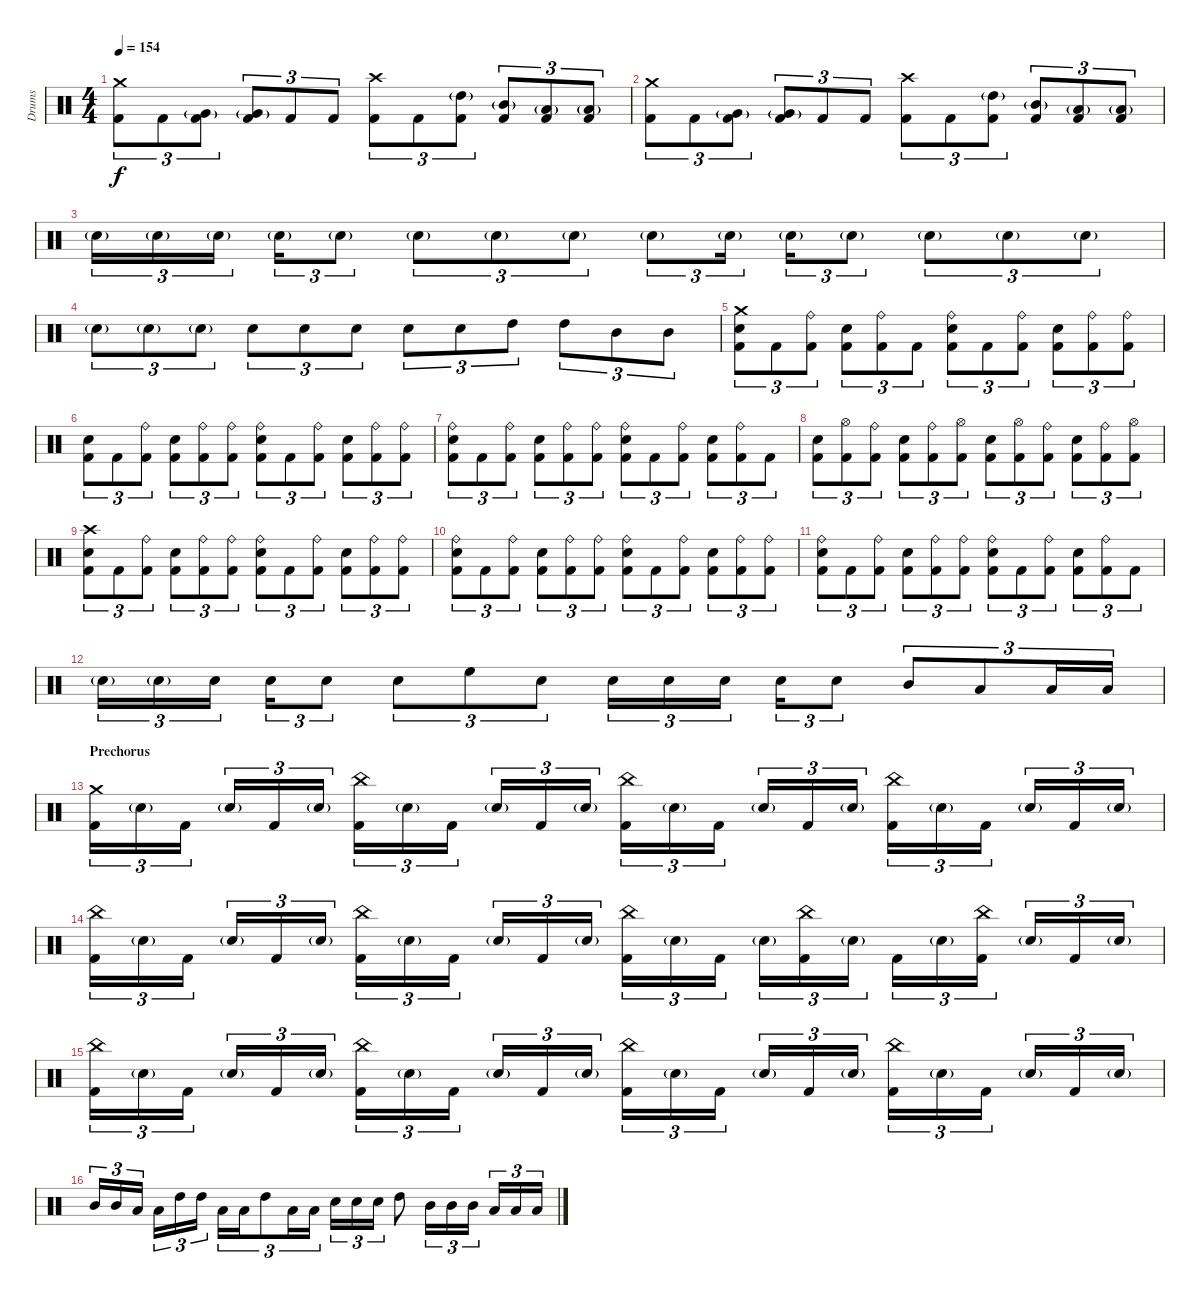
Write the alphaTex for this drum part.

\track ("Drums" "Drums") {instrument percussion}
\staff {score}
\articulation defaults
\ts (4 4)
\tempo 154
\clef neutral
\ks c
("Crash medium (hit)" "Kick (hit) 2").8{tu (3 2) dy f} "Kick (hit) 2".8{tu (3 2)} ("Very Low Tom (hit)"{g} "Kick (hit) 2").8{tu (3 2)} ("Very Low Tom (hit)"{g} "Kick (hit) 2").8{tu (3 2)} "Kick (hit) 2".8{tu (3 2)} "Kick (hit) 2".8{tu (3 2)} ("Crash high (hit)" "Kick (hit) 2").8{tu (3 2)} "Kick (hit) 2".8{tu (3 2)} ("High Tom (hit)"{g} "Kick (hit) 2").8{tu (3 2)} ("Mid Tom (hit)"{g} "Kick (hit) 2").8{tu (3 2)} ("Low Tom (hit)"{g} "Kick (hit) 2").8{tu (3 2)} ("Low Tom (hit)"{g} "Kick (hit) 2").8{tu (3 2)} |
("Crash medium (hit)" "Kick (hit) 2").8{tu (3 2)} "Kick (hit) 2".8{tu (3 2)} ("Very Low Tom (hit)"{g} "Kick (hit) 2").8{tu (3 2)} ("Very Low Tom (hit)"{g} "Kick (hit) 2").8{tu (3 2)} "Kick (hit) 2".8{tu (3 2)} "Kick (hit) 2".8{tu (3 2)} ("Crash high (hit)" "Kick (hit) 2").8{tu (3 2)} "Kick (hit) 2".8{tu (3 2)} ("High Tom (hit)"{g} "Kick (hit) 2").8{tu (3 2)} ("Mid Tom (hit)"{g} "Kick (hit) 2").8{tu (3 2)} ("Low Tom (hit)"{g} "Kick (hit) 2").8{tu (3 2)} ("Low Tom (hit)"{g} "Kick (hit) 2").8{tu (3 2)} |
"Snare (hit) 2"{g}.16{tu (3 2)} "Snare (hit) 2"{g}.16{tu (3 2)} "Snare (hit) 2"{g}.16{tu (3 2)} "Snare (hit) 2"{g}.16{tu (3 2)} "Snare (hit) 2"{g}.8{tu (3 2)} "Snare (hit) 2"{g}.8{tu (3 2)} "Snare (hit) 2"{g}.8{tu (3 2)} "Snare (hit) 2"{g}.8{tu (3 2)} "Snare (hit) 2"{g}.8{tu (3 2)} "Snare (hit) 2"{g}.16{tu (3 2)} "Snare (hit) 2"{g}.16{tu (3 2)} "Snare (hit) 2"{g}.8{tu (3 2)} "Snare (hit) 2"{g}.8{tu (3 2)} "Snare (hit) 2"{g}.8{tu (3 2)} "Snare (hit) 2"{g}.8{tu (3 2)} |
"Snare (hit) 2"{g}.8{tu (3 2)} "Snare (hit) 2"{g}.8{tu (3 2)} "Snare (hit) 2"{g}.8{tu (3 2)} "Snare (hit) 2".8{tu (3 2)} "Snare (hit) 2".8{tu (3 2)} "Snare (hit) 2".8{tu (3 2)} "Snare (hit) 2".8{tu (3 2)} "Snare (hit) 2".8{tu (3 2)} "High Tom (hit)".8{tu (3 2)} "High Tom (hit)".8{tu (3 2)} "Mid Tom (hit)".8{tu (3 2)} "Mid Tom (hit)".8{tu (3 2)} |
("Crash medium (hit)" "Snare (hit) 2" "Kick (hit) 2").8{tu (3 2)} "Kick (hit) 2".8{tu (3 2)} ("Ride (bell)" "Kick (hit) 2").8{tu (3 2)} ("Snare (hit) 2" "Kick (hit) 2").8{tu (3 2)} ("Ride (bell)" "Kick (hit) 2").8{tu (3 2)} "Kick (hit) 2".8{tu (3 2)} ("Ride (bell)" "Snare (hit) 2" "Kick (hit) 2").8{tu (3 2)} "Kick (hit) 2".8{tu (3 2)} ("Ride (bell)" "Kick (hit) 2").8{tu (3 2)} ("Snare (hit) 2" "Kick (hit) 2").8{tu (3 2)} ("Ride (bell)" "Kick (hit) 2").8{tu (3 2)} ("Ride (bell)" "Kick (hit) 2").8{tu (3 2)} |
("Snare (hit) 2" "Kick (hit) 2").8{tu (3 2)} "Kick (hit) 2".8{tu (3 2)} ("Ride (bell)" "Kick (hit) 2").8{tu (3 2)} ("Snare (hit) 2" "Kick (hit) 2").8{tu (3 2)} ("Ride (bell)" "Kick (hit) 2").8{tu (3 2)} ("Ride (bell)" "Kick (hit) 2").8{tu (3 2)} ("Ride (bell)" "Snare (hit) 2" "Kick (hit) 2").8{tu (3 2)} "Kick (hit) 2".8{tu (3 2)} ("Ride (bell)" "Kick (hit) 2").8{tu (3 2)} ("Snare (hit) 2" "Kick (hit) 2").8{tu (3 2)} ("Ride (bell)" "Kick (hit) 2").8{tu (3 2)} ("Ride (bell)" "Kick (hit) 2").8{tu (3 2)} |
("Ride (bell)" "Snare (hit) 2" "Kick (hit) 2").8{tu (3 2)} "Kick (hit) 2".8{tu (3 2)} ("Ride (bell)" "Kick (hit) 2").8{tu (3 2)} ("Snare (hit) 2" "Kick (hit) 2").8{tu (3 2)} ("Ride (bell)" "Kick (hit) 2").8{tu (3 2)} ("Ride (bell)" "Kick (hit) 2").8{tu (3 2)} ("Ride (bell)" "Snare (hit) 2" "Kick (hit) 2").8{tu (3 2)} "Kick (hit) 2".8{tu (3 2)} ("Ride (bell)" "Kick (hit) 2").8{tu (3 2)} ("Snare (hit) 2" "Kick (hit) 2").8{tu (3 2)} ("Ride (bell)" "Kick (hit) 2").8{tu (3 2)} "Kick (hit) 2".8{tu (3 2)} |
("Snare (hit) 2" "Kick (hit) 2").8{tu (3 2)} ("Hi-Hat (open)" "Kick (hit) 2").8{tu (3 2)} ("Ride (bell)" "Kick (hit) 2").8{tu (3 2)} ("Snare (hit) 2" "Kick (hit) 2").8{tu (3 2)} ("Ride (bell)" "Kick (hit) 2").8{tu (3 2)} ("Hi-Hat (open)" "Kick (hit) 2").8{tu (3 2)} ("Snare (hit) 2" "Kick (hit) 2").8{tu (3 2)} ("Hi-Hat (open)" "Kick (hit) 2").8{tu (3 2)} ("Ride (bell)" "Kick (hit) 2").8{tu (3 2)} ("Snare (hit) 2" "Kick (hit) 2").8{tu (3 2)} ("Ride (bell)" "Kick (hit) 2").8{tu (3 2)} ("Hi-Hat (open)" "Kick (hit) 2").8{tu (3 2)} |
("Crash high (hit)" "Snare (hit) 2" "Kick (hit) 2").8{tu (3 2)} "Kick (hit) 2".8{tu (3 2)} ("Ride (bell)" "Kick (hit) 2").8{tu (3 2)} ("Snare (hit) 2" "Kick (hit) 2").8{tu (3 2)} ("Ride (bell)" "Kick (hit) 2").8{tu (3 2)} ("Ride (bell)" "Kick (hit) 2").8{tu (3 2)} ("Ride (bell)" "Snare (hit) 2" "Kick (hit) 2").8{tu (3 2)} "Kick (hit) 2".8{tu (3 2)} ("Ride (bell)" "Kick (hit) 2").8{tu (3 2)} ("Snare (hit) 2" "Kick (hit) 2").8{tu (3 2)} ("Ride (bell)" "Kick (hit) 2").8{tu (3 2)} ("Ride (bell)" "Kick (hit) 2").8{tu (3 2)} |
("Ride (bell)" "Snare (hit) 2" "Kick (hit) 2").8{tu (3 2)} "Kick (hit) 2".8{tu (3 2)} ("Ride (bell)" "Kick (hit) 2").8{tu (3 2)} ("Snare (hit) 2" "Kick (hit) 2").8{tu (3 2)} ("Ride (bell)" "Kick (hit) 2").8{tu (3 2)} ("Ride (bell)" "Kick (hit) 2").8{tu (3 2)} ("Ride (bell)" "Snare (hit) 2" "Kick (hit) 2").8{tu (3 2)} "Kick (hit) 2".8{tu (3 2)} ("Ride (bell)" "Kick (hit) 2").8{tu (3 2)} ("Snare (hit) 2" "Kick (hit) 2").8{tu (3 2)} ("Ride (bell)" "Kick (hit) 2").8{tu (3 2)} ("Ride (bell)" "Kick (hit) 2").8{tu (3 2)} |
("Ride (bell)" "Snare (hit) 2" "Kick (hit) 2").8{tu (3 2)} "Kick (hit) 2".8{tu (3 2)} ("Ride (bell)" "Kick (hit) 2").8{tu (3 2)} ("Snare (hit) 2" "Kick (hit) 2").8{tu (3 2)} ("Ride (bell)" "Kick (hit) 2").8{tu (3 2)} ("Ride (bell)" "Kick (hit) 2").8{tu (3 2)} ("Ride (bell)" "Snare (hit) 2" "Kick (hit) 2").8{tu (3 2)} "Kick (hit) 2".8{tu (3 2)} ("Ride (bell)" "Kick (hit) 2").8{tu (3 2)} ("Snare (hit) 2" "Kick (hit) 2").8{tu (3 2)} ("Ride (bell)" "Kick (hit) 2").8{tu (3 2)} "Kick (hit) 2".8{tu (3 2)} |
"Snare (hit) 2"{g}.16{tu (3 2)} "Snare (hit) 2"{g}.16{tu (3 2)} "Snare (hit) 2".16{tu (3 2)} "Snare (hit) 2".16{tu (3 2)} "Snare (hit) 2".8{tu (3 2)} "Snare (hit) 2".8{tu (3 2)} "High Floor Tom (hit)".8{tu (3 2)} "Snare (hit) 2".8{tu (3 2)} "Snare (hit) 2".16{tu (3 2)} "Snare (hit) 2".16{tu (3 2)} "Snare (hit) 2".16{tu (3 2)} "Snare (hit) 2".16{tu (3 2)} "Snare (hit) 2".8{tu (3 2)} "Mid Tom (hit)".8{tu (3 2)} "Low Tom (hit)".8{tu (3 2)} "Low Tom (hit)".16{tu (3 2)} "Low Tom (hit)".16{tu (3 2)} |
\section ("" "Prechorus")
("Crash medium (hit)" "Kick (hit) 2").16{tu (3 2)} "Snare (hit) 2"{g}.16{tu (3 2)} "Kick (hit) 2".16{tu (3 2)} "Snare (hit) 2"{g}.16{tu (3 2)} "Kick (hit) 2".16{tu (3 2)} "Snare (hit) 2"{g}.16{tu (3 2)} ("China (hit)" "Kick (hit) 2").16{tu (3 2)} "Snare (hit) 2"{g}.16{tu (3 2)} "Kick (hit) 2".16{tu (3 2)} "Snare (hit) 2"{g}.16{tu (3 2)} "Kick (hit) 2".16{tu (3 2)} "Snare (hit) 2"{g}.16{tu (3 2)} ("China (hit)" "Kick (hit) 2").16{tu (3 2)} "Snare (hit) 2"{g}.16{tu (3 2)} "Kick (hit) 2".16{tu (3 2)} "Snare (hit) 2"{g}.16{tu (3 2)} "Kick (hit) 2".16{tu (3 2)} "Snare (hit) 2"{g}.16{tu (3 2)} ("China (hit)" "Kick (hit) 2").16{tu (3 2)} "Snare (hit) 2"{g}.16{tu (3 2)} "Kick (hit) 2".16{tu (3 2)} "Snare (hit) 2"{g}.16{tu (3 2)} "Kick (hit) 2".16{tu (3 2)} "Snare (hit) 2"{g}.16{tu (3 2)} |
("China (hit)" "Kick (hit) 2").16{tu (3 2)} "Snare (hit) 2"{g}.16{tu (3 2)} "Kick (hit) 2".16{tu (3 2)} "Snare (hit) 2"{g}.16{tu (3 2)} "Kick (hit) 2".16{tu (3 2)} "Snare (hit) 2"{g}.16{tu (3 2)} ("China (hit)" "Kick (hit) 2").16{tu (3 2)} "Snare (hit) 2"{g}.16{tu (3 2)} "Kick (hit) 2".16{tu (3 2)} "Snare (hit) 2"{g}.16{tu (3 2)} "Kick (hit) 2".16{tu (3 2)} "Snare (hit) 2"{g}.16{tu (3 2)} ("China (hit)" "Kick (hit) 2").16{tu (3 2)} "Snare (hit) 2"{g}.16{tu (3 2)} "Kick (hit) 2".16{tu (3 2)} "Snare (hit) 2"{g}.16{tu (3 2)} ("China (hit)" "Kick (hit) 2").16{tu (3 2)} "Snare (hit) 2"{g}.16{tu (3 2)} "Kick (hit) 2".16{tu (3 2)} "Snare (hit) 2"{g}.16{tu (3 2)} ("China (hit)" "Kick (hit) 2").16{tu (3 2)} "Snare (hit) 2"{g}.16{tu (3 2)} "Kick (hit) 2".16{tu (3 2)} "Snare (hit) 2"{g}.16{tu (3 2)} |
("China (hit)" "Kick (hit) 2").16{tu (3 2)} "Snare (hit) 2"{g}.16{tu (3 2)} "Kick (hit) 2".16{tu (3 2)} "Snare (hit) 2"{g}.16{tu (3 2)} "Kick (hit) 2".16{tu (3 2)} "Snare (hit) 2"{g}.16{tu (3 2)} ("China (hit)" "Kick (hit) 2").16{tu (3 2)} "Snare (hit) 2"{g}.16{tu (3 2)} "Kick (hit) 2".16{tu (3 2)} "Snare (hit) 2"{g}.16{tu (3 2)} "Kick (hit) 2".16{tu (3 2)} "Snare (hit) 2"{g}.16{tu (3 2)} ("China (hit)" "Kick (hit) 2").16{tu (3 2)} "Snare (hit) 2"{g}.16{tu (3 2)} "Kick (hit) 2".16{tu (3 2)} "Snare (hit) 2"{g}.16{tu (3 2)} "Kick (hit) 2".16{tu (3 2)} "Snare (hit) 2"{g}.16{tu (3 2)} ("China (hit)" "Kick (hit) 2").16{tu (3 2)} "Snare (hit) 2"{g}.16{tu (3 2)} "Kick (hit) 2".16{tu (3 2)} "Snare (hit) 2"{g}.16{tu (3 2)} "Kick (hit) 2".16{tu (3 2)} "Snare (hit) 2"{g}.16{tu (3 2)} |
"Mid Tom (hit)".16{tu (3 2)} "Mid Tom (hit)".16{tu (3 2)} "Low Tom (hit)".16{tu (3 2)} "Low Tom (hit)".16{tu (3 2)} "High Tom (hit)".16{tu (3 2)} "High Tom (hit)".16{tu (3 2)} "Low Tom (hit)".16{tu (3 2)} "Low Tom (hit)".16{tu (3 2)} "High Tom (hit)".8{tu (3 2)} "Low Tom (hit)".16{tu (3 2)} "Low Tom (hit)".16{tu (3 2)} "Snare (hit) 2".16{tu (3 2)} "Snare (hit) 2".16{tu (3 2)} "Snare (hit) 2".16{tu (3 2)} "High Tom (hit)".8 "Mid Tom (hit)".16{tu (3 2)} "Mid Tom (hit)".16{tu (3 2)} "Mid Tom (hit)".16{tu (3 2)} "Low Tom (hit)".16{tu (3 2)} "Low Tom (hit)".16{tu (3 2)} "Low Tom (hit)".16{tu (3 2)}
